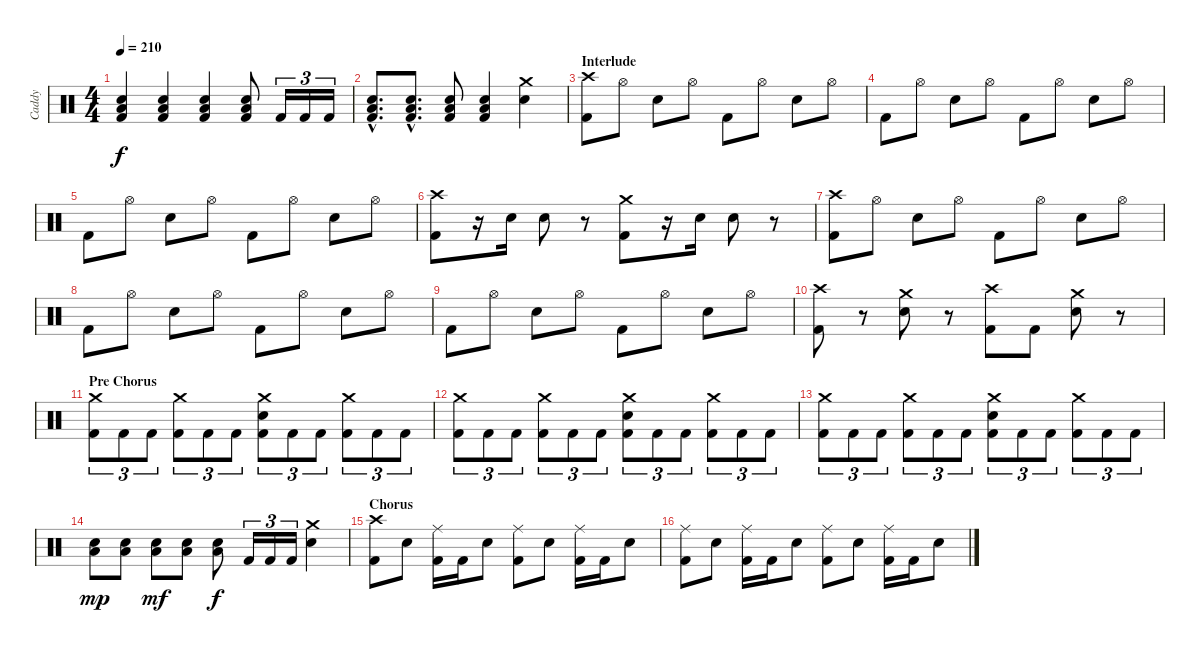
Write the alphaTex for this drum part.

\track ("Caddy" "Caddy") {instrument percussion}
\staff {score}
\articulation defaults
\ts (4 4)
\tempo 210
\clef neutral
\ks c
("Electric Snare (hit)" "Low Floor Tom (hit)" "Kick (hit) 2").4{dy f} ("Electric Snare (hit)" "Low Floor Tom (hit)" "Kick (hit) 2").4 ("Electric Snare (hit)" "Low Floor Tom (hit)" "Kick (hit) 2").4 ("Electric Snare (hit)" "Low Floor Tom (hit)" "Kick (hit) 2").8 "Kick (hit) 2".16{tu (3 2)} "Kick (hit) 2".16{tu (3 2)} "Kick (hit) 2".16{tu (3 2)} |
("Electric Snare (hit)"{hac} "Low Floor Tom (hit)"{hac} "Kick (hit) 2"{hac}).8{d} ("Electric Snare (hit)"{hac} "Low Floor Tom (hit)"{hac} "Kick (hit) 2"{hac}).8{d} ("Electric Snare (hit)" "Low Floor Tom (hit)" "Kick (hit) 2").8 ("Electric Snare (hit)" "Low Floor Tom (hit)" "Kick (hit) 2").4 ("Crash medium (hit)" "Electric Snare (hit)").4 |
\section ("" "Interlude")
("Crash high (hit)" "Kick (hit) 2").8 "Hi-Hat (open)".8 "Electric Snare (hit)".8 "Hi-Hat (open)".8 "Kick (hit) 2".8 "Hi-Hat (open)".8 "Electric Snare (hit)".8 "Hi-Hat (open)".8 |
"Kick (hit) 2".8 "Hi-Hat (open)".8 "Electric Snare (hit)".8 "Hi-Hat (open)".8 "Kick (hit) 2".8 "Hi-Hat (open)".8 "Electric Snare (hit)".8 "Hi-Hat (open)".8 |
"Kick (hit) 2".8 "Hi-Hat (open)".8 "Electric Snare (hit)".8 "Hi-Hat (open)".8 "Kick (hit) 2".8 "Hi-Hat (open)".8 "Electric Snare (hit)".8 "Hi-Hat (open)".8 |
("Crash high (hit)" "Kick (hit) 2").8 r.16 "Electric Snare (hit)".16 "Electric Snare (hit)".8 r.8 ("Crash medium (hit)" "Kick (hit) 2").8 r.16 "Electric Snare (hit)".16 "Electric Snare (hit)".8 r.8 |
("Crash high (hit)" "Kick (hit) 2").8 "Hi-Hat (open)".8 "Electric Snare (hit)".8 "Hi-Hat (open)".8 "Kick (hit) 2".8 "Hi-Hat (open)".8 "Electric Snare (hit)".8 "Hi-Hat (open)".8 |
"Kick (hit) 2".8 "Hi-Hat (open)".8 "Electric Snare (hit)".8 "Hi-Hat (open)".8 "Kick (hit) 2".8 "Hi-Hat (open)".8 "Electric Snare (hit)".8 "Hi-Hat (open)".8 |
"Kick (hit) 2".8 "Hi-Hat (open)".8 "Electric Snare (hit)".8 "Hi-Hat (open)".8 "Kick (hit) 2".8 "Hi-Hat (open)".8 "Electric Snare (hit)".8 "Hi-Hat (open)".8 |
("Crash high (hit)" "Kick (hit) 2").8 r.8 ("Crash medium (hit)" "Electric Snare (hit)").8 r.8 ("Crash high (hit)" "Kick (hit) 2").8 "Kick (hit) 2".8 ("Crash medium (hit)" "Electric Snare (hit)").8 r.8 |
\section ("" "Pre Chorus")
("Crash medium (hit)" "Kick (hit) 2").8{tu (3 2)} "Kick (hit) 2".8{tu (3 2)} "Kick (hit) 2".8{tu (3 2)} ("Crash medium (hit)" "Kick (hit) 2").8{tu (3 2)} "Kick (hit) 2".8{tu (3 2)} "Kick (hit) 2".8{tu (3 2)} ("Crash medium (hit)" "Electric Snare (hit)" "Kick (hit) 2").8{tu (3 2)} "Kick (hit) 2".8{tu (3 2)} "Kick (hit) 2".8{tu (3 2)} ("Crash medium (hit)" "Kick (hit) 2").8{tu (3 2)} "Kick (hit) 2".8{tu (3 2)} "Kick (hit) 2".8{tu (3 2)} |
("Crash medium (hit)" "Kick (hit) 2").8{tu (3 2)} "Kick (hit) 2".8{tu (3 2)} "Kick (hit) 2".8{tu (3 2)} ("Crash medium (hit)" "Kick (hit) 2").8{tu (3 2)} "Kick (hit) 2".8{tu (3 2)} "Kick (hit) 2".8{tu (3 2)} ("Crash medium (hit)" "Electric Snare (hit)" "Kick (hit) 2").8{tu (3 2)} "Kick (hit) 2".8{tu (3 2)} "Kick (hit) 2".8{tu (3 2)} ("Crash medium (hit)" "Kick (hit) 2").8{tu (3 2)} "Kick (hit) 2".8{tu (3 2)} "Kick (hit) 2".8{tu (3 2)} |
("Crash medium (hit)" "Kick (hit) 2").8{tu (3 2)} "Kick (hit) 2".8{tu (3 2)} "Kick (hit) 2".8{tu (3 2)} ("Crash medium (hit)" "Kick (hit) 2").8{tu (3 2)} "Kick (hit) 2".8{tu (3 2)} "Kick (hit) 2".8{tu (3 2)} ("Crash medium (hit)" "Electric Snare (hit)" "Kick (hit) 2").8{tu (3 2)} "Kick (hit) 2".8{tu (3 2)} "Kick (hit) 2".8{tu (3 2)} ("Crash medium (hit)" "Kick (hit) 2").8{tu (3 2)} "Kick (hit) 2".8{tu (3 2)} "Kick (hit) 2".8{tu (3 2)} |
("Electric Snare (hit)" "Low Floor Tom (hit)").8{dy mp} ("Electric Snare (hit)" "Low Floor Tom (hit)").8 ("Electric Snare (hit)" "Low Floor Tom (hit)").8{dy mf} ("Electric Snare (hit)" "Low Floor Tom (hit)").8 ("Electric Snare (hit)" "Low Floor Tom (hit)").8{dy f} "Kick (hit) 2".16{tu (3 2)} "Kick (hit) 2".16{tu (3 2)} "Kick (hit) 2".16{tu (3 2)} ("Crash medium (hit)" "Electric Snare (hit)").4 |
\section ("" "Chorus")
("Crash high (hit)" "Kick (hit) 2").8 "Electric Snare (hit)".8 ("Ride (middle)" "Kick (hit) 2").16 "Kick (hit) 2".16 "Electric Snare (hit)".8 ("Ride (middle)" "Kick (hit) 2").8 "Electric Snare (hit)".8 ("Ride (middle)" "Kick (hit) 2").16 "Kick (hit) 2".16 "Electric Snare (hit)".8 |
("Ride (middle)" "Kick (hit) 2").8 "Electric Snare (hit)".8 ("Ride (middle)" "Kick (hit) 2").16 "Kick (hit) 2".16 "Electric Snare (hit)".8 ("Ride (middle)" "Kick (hit) 2").8 "Electric Snare (hit)".8 ("Ride (middle)" "Kick (hit) 2").16 "Kick (hit) 2".16 "Electric Snare (hit)".8
